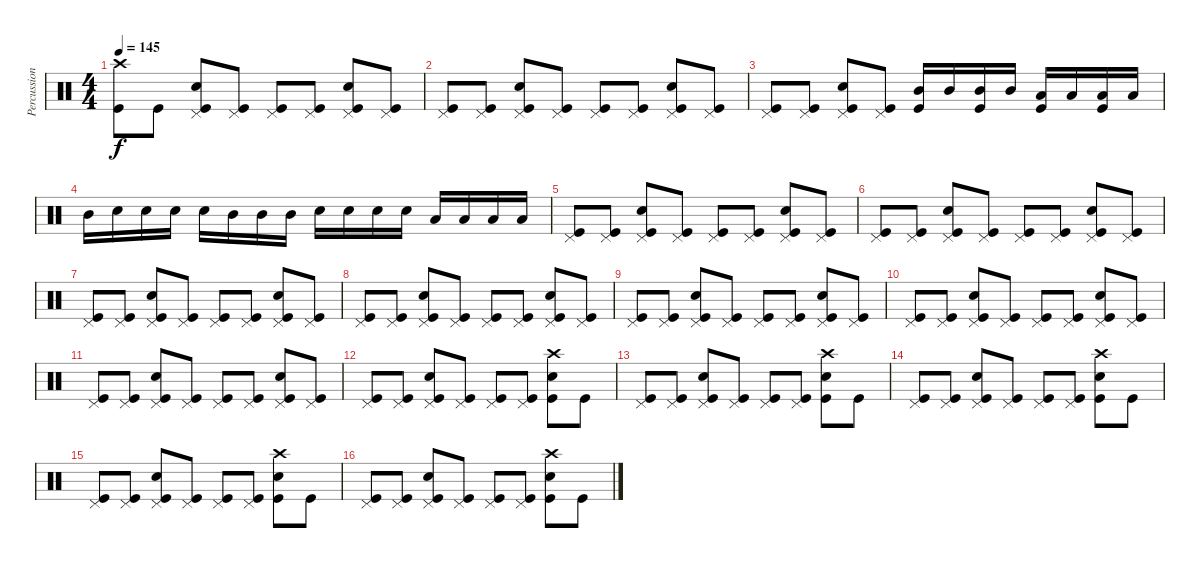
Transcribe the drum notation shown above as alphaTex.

\track ("Percussion" "Percussion") {instrument percussion}
\staff {score}
\articulation defaults
\ts (4 4)
\tempo 145
\clef neutral
\ks c
("Crash high (hit)" "Kick (hit)").8{dy f} "Kick (hit)".8 ("Pedal Hi-Hat (hit)" "Snare (hit) 2" "Kick (hit)").8 ("Pedal Hi-Hat (hit)" "Kick (hit)").8 ("Pedal Hi-Hat (hit)" "Kick (hit)").8 ("Pedal Hi-Hat (hit)" "Kick (hit)").8 ("Pedal Hi-Hat (hit)" "Snare (hit) 2" "Kick (hit)").8 ("Pedal Hi-Hat (hit)" "Kick (hit)").8 |
("Pedal Hi-Hat (hit)" "Kick (hit)").8 ("Pedal Hi-Hat (hit)" "Kick (hit)").8 ("Pedal Hi-Hat (hit)" "Snare (hit) 2" "Kick (hit)").8 ("Pedal Hi-Hat (hit)" "Kick (hit)").8 ("Pedal Hi-Hat (hit)" "Kick (hit)").8 ("Pedal Hi-Hat (hit)" "Kick (hit)").8 ("Pedal Hi-Hat (hit)" "Snare (hit) 2" "Kick (hit)").8 ("Pedal Hi-Hat (hit)" "Kick (hit)").8 |
("Pedal Hi-Hat (hit)" "Kick (hit)").8 ("Pedal Hi-Hat (hit)" "Kick (hit)").8 ("Pedal Hi-Hat (hit)" "Snare (hit) 2" "Kick (hit)").8 ("Pedal Hi-Hat (hit)" "Kick (hit)").8 ("Mid Tom (hit)" "Kick (hit)").16 "Mid Tom (hit)".16 ("Mid Tom (hit)" "Kick (hit)").16 "Mid Tom (hit)".16 ("Low Tom (hit)" "Kick (hit)").16 "Low Tom (hit)".16 ("Low Tom (hit)" "Kick (hit)").16 "Low Tom (hit)".16 |
"Mid Tom (hit)".16 "Snare (hit) 2".16 "Snare (hit) 2".16 "Snare (hit) 2".16 "Snare (hit) 2".16 "Mid Tom (hit)".16 "Mid Tom (hit)".16 "Mid Tom (hit)".16 "Snare (hit) 2".16 "Snare (hit) 2".16 "Snare (hit) 2".16 "Snare (hit) 2".16 "Low Tom (hit)".16 "Low Tom (hit)".16 "Low Tom (hit)".16 "Low Tom (hit)".16 |
("Pedal Hi-Hat (hit)" "Kick (hit)").8 ("Pedal Hi-Hat (hit)" "Kick (hit)").8 ("Pedal Hi-Hat (hit)" "Snare (hit) 2" "Kick (hit)").8 ("Pedal Hi-Hat (hit)" "Kick (hit)").8 ("Pedal Hi-Hat (hit)" "Kick (hit)").8 ("Pedal Hi-Hat (hit)" "Kick (hit)").8 ("Pedal Hi-Hat (hit)" "Snare (hit) 2" "Kick (hit)").8 ("Pedal Hi-Hat (hit)" "Kick (hit)").8 |
("Pedal Hi-Hat (hit)" "Kick (hit)").8 ("Pedal Hi-Hat (hit)" "Kick (hit)").8 ("Pedal Hi-Hat (hit)" "Snare (hit) 2" "Kick (hit)").8 ("Pedal Hi-Hat (hit)" "Kick (hit)").8 ("Pedal Hi-Hat (hit)" "Kick (hit)").8 ("Pedal Hi-Hat (hit)" "Kick (hit)").8 ("Pedal Hi-Hat (hit)" "Snare (hit) 2" "Kick (hit)").8 ("Pedal Hi-Hat (hit)" "Kick (hit)").8 |
("Pedal Hi-Hat (hit)" "Kick (hit)").8 ("Pedal Hi-Hat (hit)" "Kick (hit)").8 ("Pedal Hi-Hat (hit)" "Snare (hit) 2" "Kick (hit)").8 ("Pedal Hi-Hat (hit)" "Kick (hit)").8 ("Pedal Hi-Hat (hit)" "Kick (hit)").8 ("Pedal Hi-Hat (hit)" "Kick (hit)").8 ("Pedal Hi-Hat (hit)" "Snare (hit) 2" "Kick (hit)").8 ("Pedal Hi-Hat (hit)" "Kick (hit)").8 |
("Pedal Hi-Hat (hit)" "Kick (hit)").8 ("Pedal Hi-Hat (hit)" "Kick (hit)").8 ("Pedal Hi-Hat (hit)" "Snare (hit) 2" "Kick (hit)").8 ("Pedal Hi-Hat (hit)" "Kick (hit)").8 ("Pedal Hi-Hat (hit)" "Kick (hit)").8 ("Pedal Hi-Hat (hit)" "Kick (hit)").8 ("Pedal Hi-Hat (hit)" "Snare (hit) 2" "Kick (hit)").8 ("Pedal Hi-Hat (hit)" "Kick (hit)").8 |
("Pedal Hi-Hat (hit)" "Kick (hit)").8 ("Pedal Hi-Hat (hit)" "Kick (hit)").8 ("Pedal Hi-Hat (hit)" "Snare (hit) 2" "Kick (hit)").8 ("Pedal Hi-Hat (hit)" "Kick (hit)").8 ("Pedal Hi-Hat (hit)" "Kick (hit)").8 ("Pedal Hi-Hat (hit)" "Kick (hit)").8 ("Pedal Hi-Hat (hit)" "Snare (hit) 2" "Kick (hit)").8 ("Pedal Hi-Hat (hit)" "Kick (hit)").8 |
("Pedal Hi-Hat (hit)" "Kick (hit)").8 ("Pedal Hi-Hat (hit)" "Kick (hit)").8 ("Pedal Hi-Hat (hit)" "Snare (hit) 2" "Kick (hit)").8 ("Pedal Hi-Hat (hit)" "Kick (hit)").8 ("Pedal Hi-Hat (hit)" "Kick (hit)").8 ("Pedal Hi-Hat (hit)" "Kick (hit)").8 ("Pedal Hi-Hat (hit)" "Snare (hit) 2" "Kick (hit)").8 ("Pedal Hi-Hat (hit)" "Kick (hit)").8 |
("Pedal Hi-Hat (hit)" "Kick (hit)").8 ("Pedal Hi-Hat (hit)" "Kick (hit)").8 ("Pedal Hi-Hat (hit)" "Snare (hit) 2" "Kick (hit)").8 ("Pedal Hi-Hat (hit)" "Kick (hit)").8 ("Pedal Hi-Hat (hit)" "Kick (hit)").8 ("Pedal Hi-Hat (hit)" "Kick (hit)").8 ("Pedal Hi-Hat (hit)" "Snare (hit) 2" "Kick (hit)").8 ("Pedal Hi-Hat (hit)" "Kick (hit)").8 |
("Pedal Hi-Hat (hit)" "Kick (hit)").8 ("Pedal Hi-Hat (hit)" "Kick (hit)").8 ("Pedal Hi-Hat (hit)" "Snare (hit) 2" "Kick (hit)").8 ("Pedal Hi-Hat (hit)" "Kick (hit)").8 ("Pedal Hi-Hat (hit)" "Kick (hit)").8 ("Pedal Hi-Hat (hit)" "Kick (hit)").8 ("Crash high (hit)" "Snare (hit) 2" "Kick (hit)").8 "Kick (hit)".8 |
("Pedal Hi-Hat (hit)" "Kick (hit)").8 ("Pedal Hi-Hat (hit)" "Kick (hit)").8 ("Pedal Hi-Hat (hit)" "Snare (hit) 2" "Kick (hit)").8 ("Pedal Hi-Hat (hit)" "Kick (hit)").8 ("Pedal Hi-Hat (hit)" "Kick (hit)").8 ("Pedal Hi-Hat (hit)" "Kick (hit)").8 ("Crash high (hit)" "Snare (hit) 2" "Kick (hit)").8 "Kick (hit)".8 |
("Pedal Hi-Hat (hit)" "Kick (hit)").8 ("Pedal Hi-Hat (hit)" "Kick (hit)").8 ("Pedal Hi-Hat (hit)" "Snare (hit) 2" "Kick (hit)").8 ("Pedal Hi-Hat (hit)" "Kick (hit)").8 ("Pedal Hi-Hat (hit)" "Kick (hit)").8 ("Pedal Hi-Hat (hit)" "Kick (hit)").8 ("Crash high (hit)" "Snare (hit) 2" "Kick (hit)").8 "Kick (hit)".8 |
("Pedal Hi-Hat (hit)" "Kick (hit)").8 ("Pedal Hi-Hat (hit)" "Kick (hit)").8 ("Pedal Hi-Hat (hit)" "Snare (hit) 2" "Kick (hit)").8 ("Pedal Hi-Hat (hit)" "Kick (hit)").8 ("Pedal Hi-Hat (hit)" "Kick (hit)").8 ("Pedal Hi-Hat (hit)" "Kick (hit)").8 ("Crash high (hit)" "Snare (hit) 2" "Kick (hit)").8 "Kick (hit)".8 |
("Pedal Hi-Hat (hit)" "Kick (hit)").8 ("Pedal Hi-Hat (hit)" "Kick (hit)").8 ("Pedal Hi-Hat (hit)" "Snare (hit) 2" "Kick (hit)").8 ("Pedal Hi-Hat (hit)" "Kick (hit)").8 ("Pedal Hi-Hat (hit)" "Kick (hit)").8 ("Pedal Hi-Hat (hit)" "Kick (hit)").8 ("Crash high (hit)" "Snare (hit) 2" "Kick (hit)").8 "Kick (hit)".8
